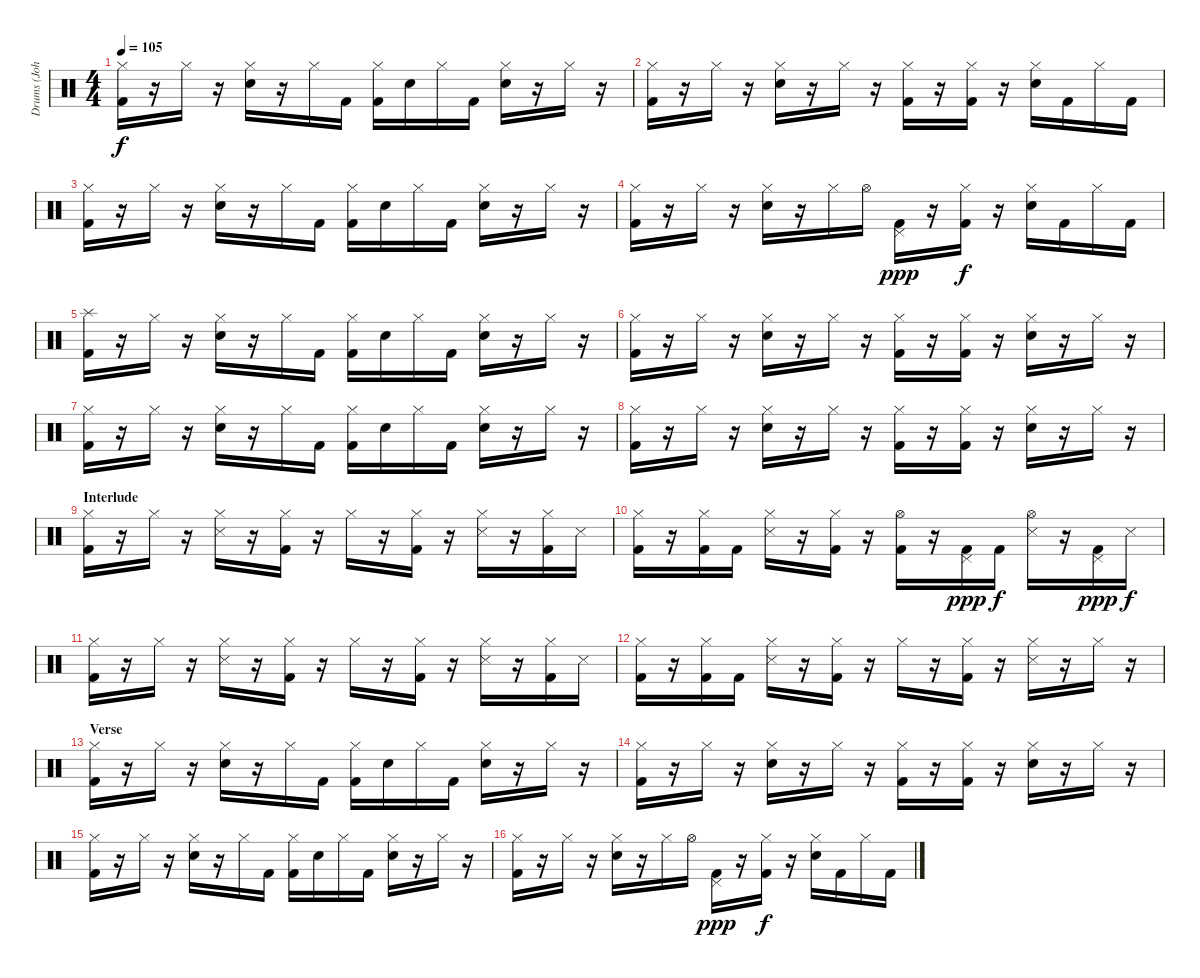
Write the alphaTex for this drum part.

\track ("Drums (John Otto)" "Drums (Joh") {instrument percussion}
\staff {score}
\articulation defaults
\ts (4 4)
\tempo 105
\clef neutral
\ks c
("Hi-Hat (closed)" "Kick (hit) 2").16{dy f} r.16 "Hi-Hat (closed)".16 r.16 ("Hi-Hat (closed)" "Electric Snare (hit)").16 r.16 "Hi-Hat (closed)".16 "Kick (hit) 2".16 ("Hi-Hat (closed)" "Kick (hit) 2").16 "Electric Snare (hit)".16 "Hi-Hat (closed)".16 "Kick (hit) 2".16 ("Hi-Hat (closed)" "Electric Snare (hit)").16 r.16 "Hi-Hat (closed)".16 r.16 |
("Hi-Hat (closed)" "Kick (hit) 2").16 r.16 "Hi-Hat (closed)".16 r.16 ("Hi-Hat (closed)" "Electric Snare (hit)").16 r.16 "Hi-Hat (closed)".16 r.16 ("Hi-Hat (closed)" "Kick (hit) 2").16 r.16 ("Hi-Hat (closed)" "Kick (hit) 2").16 r.16 ("Hi-Hat (closed)" "Electric Snare (hit)").16 "Kick (hit) 2".16 "Hi-Hat (closed)".16 "Kick (hit) 2".16 |
("Hi-Hat (closed)" "Kick (hit) 2").16 r.16 "Hi-Hat (closed)".16 r.16 ("Hi-Hat (closed)" "Electric Snare (hit)").16 r.16 "Hi-Hat (closed)".16 "Kick (hit) 2".16 ("Hi-Hat (closed)" "Kick (hit) 2").16 "Electric Snare (hit)".16 "Hi-Hat (closed)".16 "Kick (hit) 2".16 ("Hi-Hat (closed)" "Electric Snare (hit)").16 r.16 "Hi-Hat (closed)".16 r.16 |
("Hi-Hat (closed)" "Kick (hit) 2").16 r.16 "Hi-Hat (closed)".16 r.16 ("Hi-Hat (closed)" "Electric Snare (hit)").16 r.16 "Hi-Hat (closed)".16 "Hi-Hat (open)".16 ("Pedal Hi-Hat (hit)" "Kick (hit) 2").16{dy ppp} r.16 ("Hi-Hat (closed)" "Kick (hit) 2").16{dy f} r.16 ("Hi-Hat (closed)" "Electric Snare (hit)").16 "Kick (hit) 2".16 "Hi-Hat (closed)".16 "Kick (hit) 2".16 |
("Splash (hit)" "Kick (hit) 2").16 r.16 "Hi-Hat (closed)".16 r.16 ("Hi-Hat (closed)" "Electric Snare (hit)").16 r.16 "Hi-Hat (closed)".16 "Kick (hit) 2".16 ("Hi-Hat (closed)" "Kick (hit) 2").16 "Electric Snare (hit)".16 "Hi-Hat (closed)".16 "Kick (hit) 2".16 ("Hi-Hat (closed)" "Electric Snare (hit)").16 r.16 "Hi-Hat (closed)".16 r.16 |
("Hi-Hat (closed)" "Kick (hit) 2").16 r.16 "Hi-Hat (closed)".16 r.16 ("Hi-Hat (closed)" "Electric Snare (hit)").16 r.16 "Hi-Hat (closed)".16 r.16 ("Hi-Hat (closed)" "Kick (hit) 2").16 r.16 ("Hi-Hat (closed)" "Kick (hit) 2").16 r.16 ("Hi-Hat (closed)" "Electric Snare (hit)").16 r.16 "Hi-Hat (closed)".16 r.16 |
("Hi-Hat (closed)" "Kick (hit) 2").16 r.16 "Hi-Hat (closed)".16 r.16 ("Hi-Hat (closed)" "Electric Snare (hit)").16 r.16 "Hi-Hat (closed)".16 "Kick (hit) 2".16 ("Hi-Hat (closed)" "Kick (hit) 2").16 "Electric Snare (hit)".16 "Hi-Hat (closed)".16 "Kick (hit) 2".16 ("Hi-Hat (closed)" "Electric Snare (hit)").16 r.16 "Hi-Hat (closed)".16 r.16 |
("Hi-Hat (closed)" "Kick (hit) 2").16 r.16 "Hi-Hat (closed)".16 r.16 ("Hi-Hat (closed)" "Electric Snare (hit)").16 r.16 "Hi-Hat (closed)".16 r.16 ("Hi-Hat (closed)" "Kick (hit) 2").16 r.16 ("Hi-Hat (closed)" "Kick (hit) 2").16 r.16 ("Hi-Hat (closed)" "Electric Snare (hit)").16 r.16 "Hi-Hat (closed)".16 r.16 |
\section ("" "Interlude")
("Hi-Hat (closed)" "Kick (hit) 2").16 r.16 "Hi-Hat (closed)".16 r.16 ("Hi-Hat (closed)" "Snare (side stick) 3").16 r.16 ("Hi-Hat (closed)" "Kick (hit) 2").16 r.16 "Hi-Hat (closed)".16 r.16 ("Hi-Hat (closed)" "Kick (hit) 2").16 r.16 ("Hi-Hat (closed)" "Snare (side stick) 3").16 r.16 ("Hi-Hat (closed)" "Kick (hit) 2").16 "Snare (side stick) 3".16 |
("Hi-Hat (closed)" "Kick (hit) 2").16 r.16 ("Hi-Hat (closed)" "Kick (hit) 2").16 "Kick (hit) 2".16 ("Hi-Hat (closed)" "Snare (side stick) 3").16 r.16 ("Hi-Hat (closed)" "Kick (hit) 2").16 r.16 ("Hi-Hat (open)" "Kick (hit) 2").16 r.16 ("Pedal Hi-Hat (hit)" "Kick (hit) 2").16{dy ppp} "Kick (hit) 2".16{dy f} ("Hi-Hat (open)" "Snare (side stick) 3").16 r.16 ("Pedal Hi-Hat (hit)" "Kick (hit) 2").16{dy ppp} "Snare (side stick) 3".16{dy f} |
("Hi-Hat (closed)" "Kick (hit) 2").16 r.16 "Hi-Hat (closed)".16 r.16 ("Hi-Hat (closed)" "Snare (side stick) 3").16 r.16 ("Hi-Hat (closed)" "Kick (hit) 2").16 r.16 "Hi-Hat (closed)".16 r.16 ("Hi-Hat (closed)" "Kick (hit) 2").16 r.16 ("Hi-Hat (closed)" "Snare (side stick) 3").16 r.16 ("Hi-Hat (closed)" "Kick (hit) 2").16 "Snare (side stick) 3".16 |
("Hi-Hat (closed)" "Kick (hit) 2").16 r.16 ("Hi-Hat (closed)" "Kick (hit) 2").16 "Kick (hit) 2".16 ("Hi-Hat (closed)" "Snare (side stick) 3").16 r.16 ("Hi-Hat (closed)" "Kick (hit) 2").16 r.16 "Hi-Hat (closed)".16 r.16 ("Hi-Hat (closed)" "Kick (hit) 2").16 r.16 ("Hi-Hat (closed)" "Snare (side stick) 3").16 r.16 "Hi-Hat (closed)".16 r.16 |
\section ("" "Verse")
("Hi-Hat (closed)" "Kick (hit) 2").16 r.16 "Hi-Hat (closed)".16 r.16 ("Hi-Hat (closed)" "Electric Snare (hit)").16 r.16 "Hi-Hat (closed)".16 "Kick (hit) 2".16 ("Hi-Hat (closed)" "Kick (hit) 2").16 "Electric Snare (hit)".16 "Hi-Hat (closed)".16 "Kick (hit) 2".16 ("Hi-Hat (closed)" "Electric Snare (hit)").16 r.16 "Hi-Hat (closed)".16 r.16 |
("Hi-Hat (closed)" "Kick (hit) 2").16 r.16 "Hi-Hat (closed)".16 r.16 ("Hi-Hat (closed)" "Electric Snare (hit)").16 r.16 "Hi-Hat (closed)".16 r.16 ("Hi-Hat (closed)" "Kick (hit) 2").16 r.16 ("Hi-Hat (closed)" "Kick (hit) 2").16 r.16 ("Hi-Hat (closed)" "Electric Snare (hit)").16 r.16 "Hi-Hat (closed)".16 r.16 |
("Hi-Hat (closed)" "Kick (hit) 2").16 r.16 "Hi-Hat (closed)".16 r.16 ("Hi-Hat (closed)" "Electric Snare (hit)").16 r.16 "Hi-Hat (closed)".16 "Kick (hit) 2".16 ("Hi-Hat (closed)" "Kick (hit) 2").16 "Electric Snare (hit)".16 "Hi-Hat (closed)".16 "Kick (hit) 2".16 ("Hi-Hat (closed)" "Electric Snare (hit)").16 r.16 "Hi-Hat (closed)".16 r.16 |
("Hi-Hat (closed)" "Kick (hit) 2").16 r.16 "Hi-Hat (closed)".16 r.16 ("Hi-Hat (closed)" "Electric Snare (hit)").16 r.16 "Hi-Hat (closed)".16 "Hi-Hat (open)".16 ("Pedal Hi-Hat (hit)" "Kick (hit) 2").16{dy ppp} r.16 ("Hi-Hat (closed)" "Kick (hit) 2").16{dy f} r.16 ("Hi-Hat (closed)" "Electric Snare (hit)").16 "Kick (hit) 2".16 "Hi-Hat (closed)".16 "Kick (hit) 2".16
